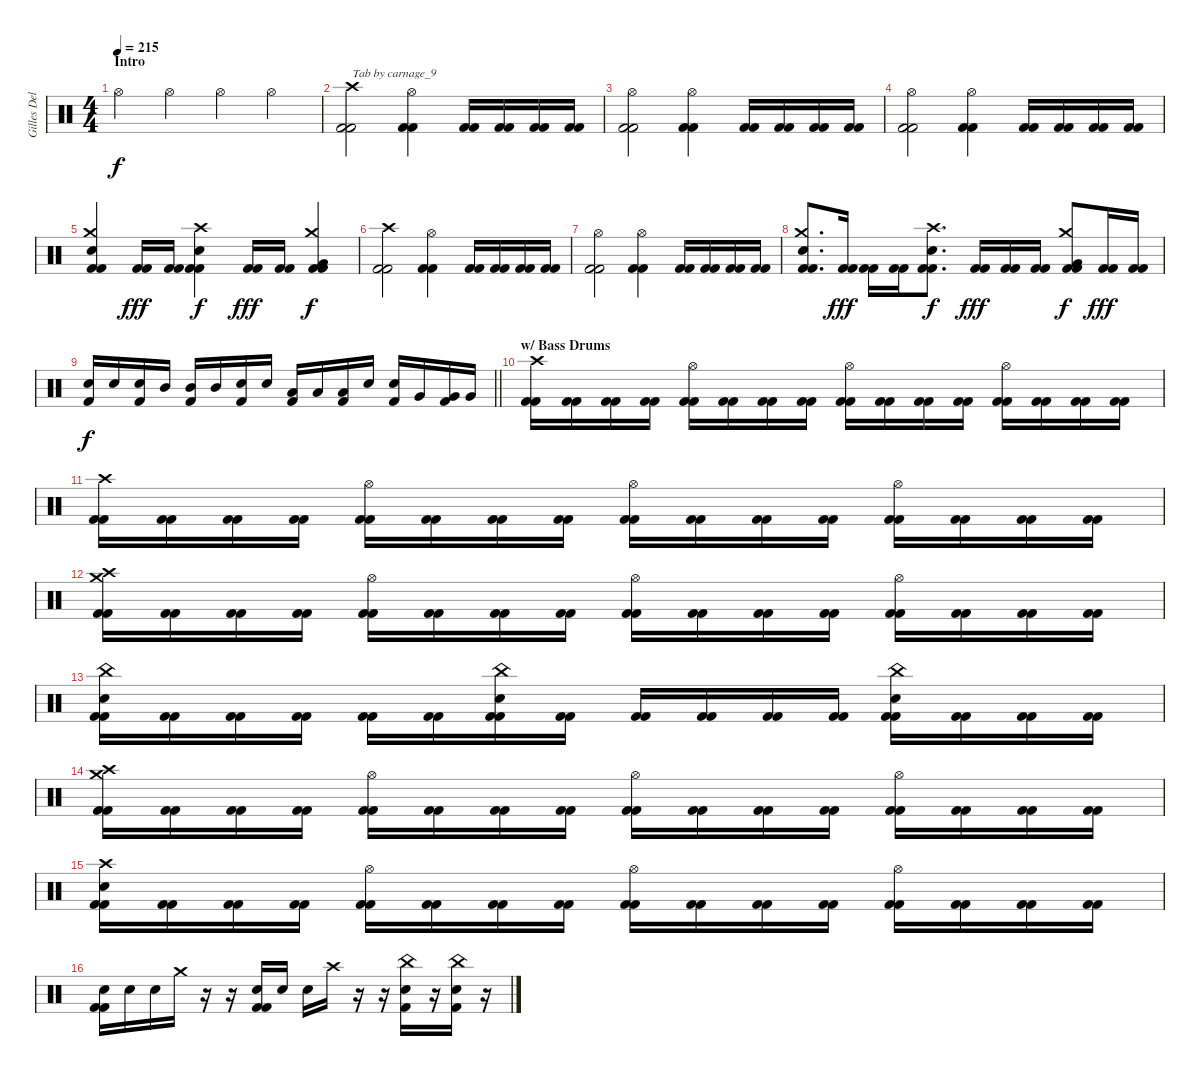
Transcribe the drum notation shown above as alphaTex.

\track ("Gilles Delecroix" "Gilles Del") {instrument percussion}
\staff {score}
\articulation defaults
\ts (4 4)
\section ("" "Intro")
\tempo 215
\clef neutral
\ks c "Hi-Hat (open)".4{dy f} "Hi-Hat (open)".4 "Hi-Hat (open)".4 "Hi-Hat (open)".4
|
("Crash high (hit)" "Kick (hit) 2" "Kick (hit) 2").2{txt "Tab by carnage_9"} ("Hi-Hat (open)" "Kick (hit) 2" "Kick (hit) 2").4 ("Kick (hit) 2" "Kick (hit) 2").16 ("Kick (hit) 2" "Kick (hit) 2").16 ("Kick (hit) 2" "Kick (hit) 2").16 ("Kick (hit) 2" "Kick (hit) 2").16 |
("Hi-Hat (open)" "Kick (hit) 2" "Kick (hit) 2").2 ("Hi-Hat (open)" "Kick (hit) 2" "Kick (hit) 2").4 ("Kick (hit) 2" "Kick (hit) 2").16 ("Kick (hit) 2" "Kick (hit) 2").16 ("Kick (hit) 2" "Kick (hit) 2").16 ("Kick (hit) 2" "Kick (hit) 2").16 |
("Hi-Hat (open)" "Kick (hit) 2" "Kick (hit) 2").2 ("Hi-Hat (open)" "Kick (hit) 2" "Kick (hit) 2").4 ("Kick (hit) 2" "Kick (hit) 2").16 ("Kick (hit) 2" "Kick (hit) 2").16 ("Kick (hit) 2" "Kick (hit) 2").16 ("Kick (hit) 2" "Kick (hit) 2").16 |
("Kick (hit) 2" "Crash medium (hit)" "Electric Snare (hit)" "Kick (hit) 2").4 ("Kick (hit) 2" "Kick (hit) 2").16{dy fff} ("Kick (hit) 2" "Kick (hit) 2").16 ("Kick (hit) 2" "Crash high (hit)" "Electric Snare (hit)" "Kick (hit) 2").4{dy f} ("Kick (hit) 2" "Kick (hit) 2").16{dy fff} ("Kick (hit) 2" "Kick (hit) 2").16 ("Kick (hit) 2" "Crash medium (hit)" "Very Low Tom (hit)" "Kick (hit) 2").4{dy f} |
("Crash high (hit)" "Kick (hit) 2" "Kick (hit) 2").2 ("Hi-Hat (open)" "Kick (hit) 2" "Kick (hit) 2").4 ("Kick (hit) 2" "Kick (hit) 2").16 ("Kick (hit) 2" "Kick (hit) 2").16 ("Kick (hit) 2" "Kick (hit) 2").16 ("Kick (hit) 2" "Kick (hit) 2").16 |
("Hi-Hat (open)" "Kick (hit) 2" "Kick (hit) 2").2 ("Hi-Hat (open)" "Kick (hit) 2" "Kick (hit) 2").4 ("Kick (hit) 2" "Kick (hit) 2").16 ("Kick (hit) 2" "Kick (hit) 2").16 ("Kick (hit) 2" "Kick (hit) 2").16 ("Kick (hit) 2" "Kick (hit) 2").16 |
("Kick (hit) 2" "Crash medium (hit)" "Electric Snare (hit)" "Kick (hit) 2").8{d} ("Kick (hit) 2" "Kick (hit) 2").16{dy fff} ("Kick (hit) 2" "Kick (hit) 2").16 ("Kick (hit) 2" "Kick (hit) 2").16 ("Kick (hit) 2" "Crash high (hit)" "Electric Snare (hit)" "Kick (hit) 2").8{d dy f} ("Kick (hit) 2" "Kick (hit) 2").16{dy fff} ("Kick (hit) 2" "Kick (hit) 2").16 ("Kick (hit) 2" "Kick (hit) 2").16 ("Kick (hit) 2" "Crash medium (hit)" "Very Low Tom (hit)" "Kick (hit) 2").8{dy f} ("Kick (hit) 2" "Kick (hit) 2").16{dy fff} ("Kick (hit) 2" "Kick (hit) 2").16 |
\barLineRight lightlight
("Electric Snare (hit)" "Kick (hit) 2").16{dy f} "Electric Snare (hit)".16 ("Electric Snare (hit)" "Kick (hit) 2").16 "Mid Tom (hit)".16 ("Mid Tom (hit)" "Kick (hit) 2").16 "Mid Tom (hit)".16 ("Electric Snare (hit)" "Kick (hit) 2").16 "Electric Snare (hit)".16 ("Low Tom (hit)" "Kick (hit) 2").16 "Low Tom (hit)".16 ("Low Tom (hit)" "Kick (hit) 2").16 "Electric Snare (hit)".16 ("Electric Snare (hit)" "Kick (hit) 2").16 "Very Low Tom (hit)".16 ("Very Low Tom (hit)" "Kick (hit) 2").16 "Very Low Tom (hit)".16 |
\section ("" "w/ Bass Drums")
("Crash high (hit)" "Kick (hit) 2" "Kick (hit) 2").16 ("Kick (hit) 2" "Kick (hit) 2").16 ("Kick (hit) 2" "Kick (hit) 2").16 ("Kick (hit) 2" "Kick (hit) 2").16 ("Hi-Hat (open)" "Kick (hit) 2" "Kick (hit) 2").16 ("Kick (hit) 2" "Kick (hit) 2").16 ("Kick (hit) 2" "Kick (hit) 2").16 ("Kick (hit) 2" "Kick (hit) 2").16 ("Hi-Hat (open)" "Kick (hit) 2" "Kick (hit) 2").16 ("Kick (hit) 2" "Kick (hit) 2").16 ("Kick (hit) 2" "Kick (hit) 2").16 ("Kick (hit) 2" "Kick (hit) 2").16 ("Hi-Hat (open)" "Kick (hit) 2" "Kick (hit) 2").16 ("Kick (hit) 2" "Kick (hit) 2").16 ("Kick (hit) 2" "Kick (hit) 2").16 ("Kick (hit) 2" "Kick (hit) 2").16 |
("Crash high (hit)" "Kick (hit) 2" "Kick (hit) 2").16 ("Kick (hit) 2" "Kick (hit) 2").16 ("Kick (hit) 2" "Kick (hit) 2").16 ("Kick (hit) 2" "Kick (hit) 2").16 ("Hi-Hat (open)" "Kick (hit) 2" "Kick (hit) 2").16 ("Kick (hit) 2" "Kick (hit) 2").16 ("Kick (hit) 2" "Kick (hit) 2").16 ("Kick (hit) 2" "Kick (hit) 2").16 ("Hi-Hat (open)" "Kick (hit) 2" "Kick (hit) 2").16 ("Kick (hit) 2" "Kick (hit) 2").16 ("Kick (hit) 2" "Kick (hit) 2").16 ("Kick (hit) 2" "Kick (hit) 2").16 ("Hi-Hat (open)" "Kick (hit) 2" "Kick (hit) 2").16 ("Kick (hit) 2" "Kick (hit) 2").16 ("Kick (hit) 2" "Kick (hit) 2").16 ("Kick (hit) 2" "Kick (hit) 2").16 |
("Crash high (hit)" "Crash medium (hit)" "Kick (hit) 2" "Kick (hit) 2").16 ("Kick (hit) 2" "Kick (hit) 2").16 ("Kick (hit) 2" "Kick (hit) 2").16 ("Kick (hit) 2" "Kick (hit) 2").16 ("Hi-Hat (open)" "Kick (hit) 2" "Kick (hit) 2").16 ("Kick (hit) 2" "Kick (hit) 2").16 ("Kick (hit) 2" "Kick (hit) 2").16 ("Kick (hit) 2" "Kick (hit) 2").16 ("Hi-Hat (open)" "Kick (hit) 2" "Kick (hit) 2").16 ("Kick (hit) 2" "Kick (hit) 2").16 ("Kick (hit) 2" "Kick (hit) 2").16 ("Kick (hit) 2" "Kick (hit) 2").16 ("Hi-Hat (open)" "Kick (hit) 2" "Kick (hit) 2").16 ("Kick (hit) 2" "Kick (hit) 2").16 ("Kick (hit) 2" "Kick (hit) 2").16 ("Kick (hit) 2" "Kick (hit) 2").16 |
("China (hit)" "Electric Snare (hit)" "Kick (hit) 2" "Kick (hit) 2").16 ("Kick (hit) 2" "Kick (hit) 2").16 ("Kick (hit) 2" "Kick (hit) 2").16 ("Kick (hit) 2" "Kick (hit) 2").16 ("Kick (hit) 2" "Kick (hit) 2").16 ("Kick (hit) 2" "Kick (hit) 2").16 ("China (hit)" "Electric Snare (hit)" "Kick (hit) 2" "Kick (hit) 2").16 ("Kick (hit) 2" "Kick (hit) 2").16 ("Kick (hit) 2" "Kick (hit) 2").16 ("Kick (hit) 2" "Kick (hit) 2").16 ("Kick (hit) 2" "Kick (hit) 2").16 ("Kick (hit) 2" "Kick (hit) 2").16 ("China (hit)" "Electric Snare (hit)" "Kick (hit) 2" "Kick (hit) 2").16 ("Kick (hit) 2" "Kick (hit) 2").16 ("Kick (hit) 2" "Kick (hit) 2").16 ("Kick (hit) 2" "Kick (hit) 2").16 |
("Crash high (hit)" "Crash medium (hit)" "Kick (hit) 2" "Kick (hit) 2").16 ("Kick (hit) 2" "Kick (hit) 2").16 ("Kick (hit) 2" "Kick (hit) 2").16 ("Kick (hit) 2" "Kick (hit) 2").16 ("Hi-Hat (open)" "Kick (hit) 2" "Kick (hit) 2").16 ("Kick (hit) 2" "Kick (hit) 2").16 ("Kick (hit) 2" "Kick (hit) 2").16 ("Kick (hit) 2" "Kick (hit) 2").16 ("Hi-Hat (open)" "Kick (hit) 2" "Kick (hit) 2").16 ("Kick (hit) 2" "Kick (hit) 2").16 ("Kick (hit) 2" "Kick (hit) 2").16 ("Kick (hit) 2" "Kick (hit) 2").16 ("Hi-Hat (open)" "Kick (hit) 2" "Kick (hit) 2").16 ("Kick (hit) 2" "Kick (hit) 2").16 ("Kick (hit) 2" "Kick (hit) 2").16 ("Kick (hit) 2" "Kick (hit) 2").16 |
("Crash high (hit)" "Electric Snare (hit)" "Kick (hit) 2" "Kick (hit) 2").16 ("Kick (hit) 2" "Kick (hit) 2").16 ("Kick (hit) 2" "Kick (hit) 2").16 ("Kick (hit) 2" "Kick (hit) 2").16 ("Hi-Hat (open)" "Kick (hit) 2" "Kick (hit) 2").16 ("Kick (hit) 2" "Kick (hit) 2").16 ("Kick (hit) 2" "Kick (hit) 2").16 ("Kick (hit) 2" "Kick (hit) 2").16 ("Hi-Hat (open)" "Kick (hit) 2" "Kick (hit) 2").16 ("Kick (hit) 2" "Kick (hit) 2").16 ("Kick (hit) 2" "Kick (hit) 2").16 ("Kick (hit) 2" "Kick (hit) 2").16 ("Hi-Hat (open)" "Kick (hit) 2" "Kick (hit) 2").16 ("Kick (hit) 2" "Kick (hit) 2").16 ("Kick (hit) 2" "Kick (hit) 2").16 ("Kick (hit) 2" "Kick (hit) 2").16 |
("Electric Snare (hit)" "Kick (hit) 2" "Kick (hit) 2").16 "Electric Snare (hit)".16 "Electric Snare (hit)".16 "Crash medium (hit)".16 r.16 r.16 ("Electric Snare (hit)" "Kick (hit) 2" "Kick (hit) 2").16 "Electric Snare (hit)".16 "Electric Snare (hit)".16 "Crash high (hit)".16 r.16 r.16 ("China (hit)" "Electric Snare (hit)" "Kick (hit) 2").16 r.16 ("China (hit)" "Electric Snare (hit)" "Kick (hit) 2").16 r.16
